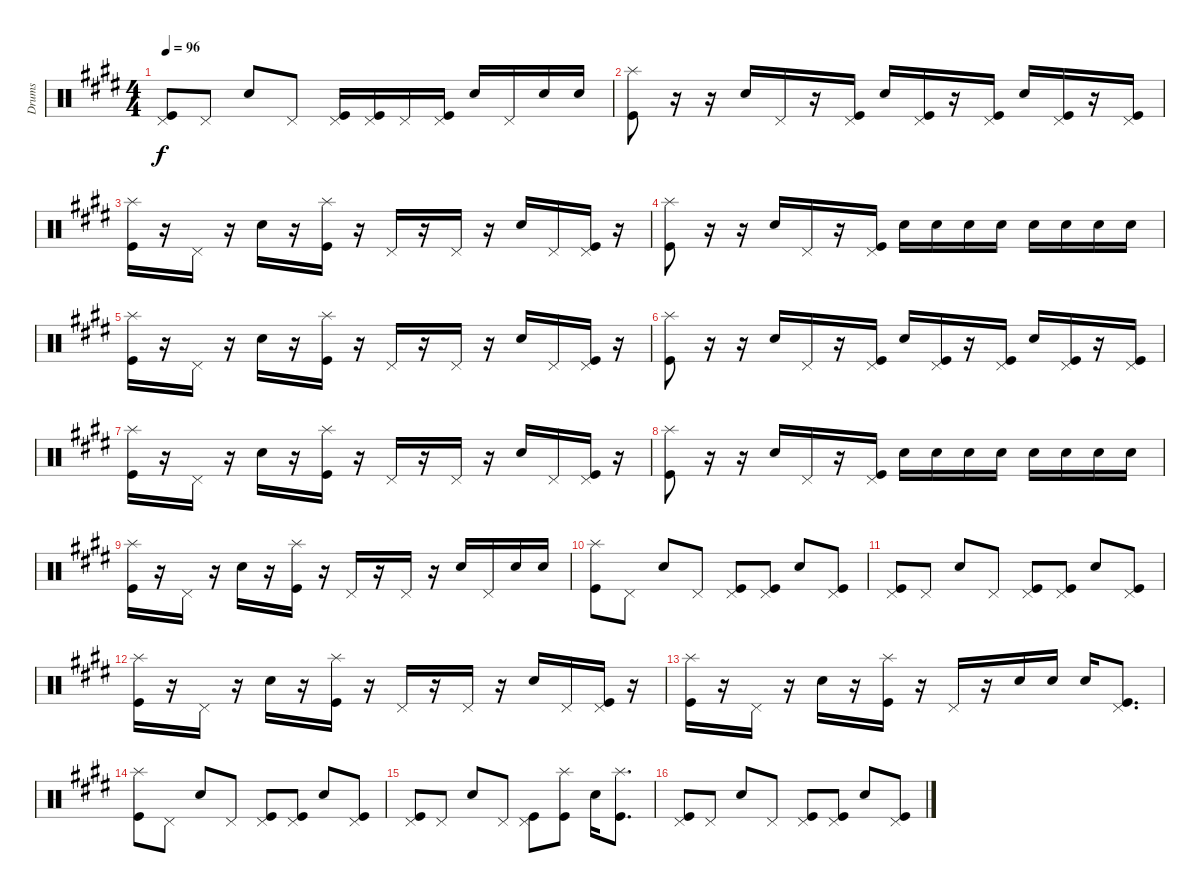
\track ("Drums" "Drums") {instrument percussion}
\staff {score}
\articulation defaults
\ts (4 4)
\tempo 96
\clef neutral
\ks e
("Kick (hit)" "Pedal Hi-Hat (hit)").8{dy f} "Pedal Hi-Hat (hit)".8 "Electric Snare (hit)".8 "Pedal Hi-Hat (hit)".8 ("Kick (hit)" "Pedal Hi-Hat (hit)").16 ("Kick (hit)" "Pedal Hi-Hat (hit)").16 "Pedal Hi-Hat (hit)".16 ("Kick (hit)" "Pedal Hi-Hat (hit)").16 "Electric Snare (hit)".16 "Pedal Hi-Hat (hit)".16 "Electric Snare (hit)".16 "Electric Snare (hit)".16 |
("Kick (hit)" "Splash (hit)").8 r.16 r.16 "Electric Snare (hit)".16 "Pedal Hi-Hat (hit)".16 r.16 ("Kick (hit)" "Pedal Hi-Hat (hit)").16 "Electric Snare (hit)".16 ("Kick (hit)" "Pedal Hi-Hat (hit)").16 r.16 ("Kick (hit)" "Pedal Hi-Hat (hit)").16 "Electric Snare (hit)".16 ("Kick (hit)" "Pedal Hi-Hat (hit)").16 r.16 ("Kick (hit)" "Pedal Hi-Hat (hit)").16 |
("Kick (hit)" "Splash (hit)").16 r.16 "Pedal Hi-Hat (hit)".16 r.16 "Electric Snare (hit)".16 r.16 ("Kick (hit)" "Splash (hit)").16 r.16 "Pedal Hi-Hat (hit)".16 r.16 "Pedal Hi-Hat (hit)".16 r.16 "Electric Snare (hit)".16 "Pedal Hi-Hat (hit)".16 ("Kick (hit)" "Pedal Hi-Hat (hit)").16 r.16 |
("Kick (hit)" "Splash (hit)").8 r.16 r.16 "Electric Snare (hit)".16 "Pedal Hi-Hat (hit)".16 r.16 ("Kick (hit)" "Pedal Hi-Hat (hit)").16 "Electric Snare (hit)".16 "Electric Snare (hit)".16 "Electric Snare (hit)".16 "Electric Snare (hit)".16 "Electric Snare (hit)".16 "Electric Snare (hit)".16 "Electric Snare (hit)".16 "Electric Snare (hit)".16 |
("Kick (hit)" "Splash (hit)").16 r.16 "Pedal Hi-Hat (hit)".16 r.16 "Electric Snare (hit)".16 r.16 ("Kick (hit)" "Splash (hit)").16 r.16 "Pedal Hi-Hat (hit)".16 r.16 "Pedal Hi-Hat (hit)".16 r.16 "Electric Snare (hit)".16 "Pedal Hi-Hat (hit)".16 ("Kick (hit)" "Pedal Hi-Hat (hit)").16 r.16 |
("Kick (hit)" "Splash (hit)").8 r.16 r.16 "Electric Snare (hit)".16 "Pedal Hi-Hat (hit)".16 r.16 ("Kick (hit)" "Pedal Hi-Hat (hit)").16 "Electric Snare (hit)".16 ("Kick (hit)" "Pedal Hi-Hat (hit)").16 r.16 ("Kick (hit)" "Pedal Hi-Hat (hit)").16 "Electric Snare (hit)".16 ("Kick (hit)" "Pedal Hi-Hat (hit)").16 r.16 ("Kick (hit)" "Pedal Hi-Hat (hit)").16 |
("Kick (hit)" "Splash (hit)").16 r.16 "Pedal Hi-Hat (hit)".16 r.16 "Electric Snare (hit)".16 r.16 ("Kick (hit)" "Splash (hit)").16 r.16 "Pedal Hi-Hat (hit)".16 r.16 "Pedal Hi-Hat (hit)".16 r.16 "Electric Snare (hit)".16 "Pedal Hi-Hat (hit)".16 ("Kick (hit)" "Pedal Hi-Hat (hit)").16 r.16 |
("Kick (hit)" "Splash (hit)").8 r.16 r.16 "Electric Snare (hit)".16 "Pedal Hi-Hat (hit)".16 r.16 ("Kick (hit)" "Pedal Hi-Hat (hit)").16 "Electric Snare (hit)".16 "Electric Snare (hit)".16 "Electric Snare (hit)".16 "Electric Snare (hit)".16 "Electric Snare (hit)".16 "Electric Snare (hit)".16 "Electric Snare (hit)".16 "Electric Snare (hit)".16 |
("Kick (hit)" "Splash (hit)").16 r.16 "Pedal Hi-Hat (hit)".16 r.16 "Electric Snare (hit)".16 r.16 ("Kick (hit)" "Splash (hit)").16 r.16 "Pedal Hi-Hat (hit)".16 r.16 "Pedal Hi-Hat (hit)".16 r.16 "Electric Snare (hit)".16 "Pedal Hi-Hat (hit)".16 "Electric Snare (hit)".16 "Electric Snare (hit)".16 |
("Kick (hit)" "Splash (hit)").8 "Pedal Hi-Hat (hit)".8 "Electric Snare (hit)".8 "Pedal Hi-Hat (hit)".8 ("Kick (hit)" "Pedal Hi-Hat (hit)").8 ("Kick (hit)" "Pedal Hi-Hat (hit)").8 "Electric Snare (hit)".8 ("Kick (hit)" "Pedal Hi-Hat (hit)").8 |
("Kick (hit)" "Pedal Hi-Hat (hit)").8 "Pedal Hi-Hat (hit)".8 "Electric Snare (hit)".8 "Pedal Hi-Hat (hit)".8 ("Kick (hit)" "Pedal Hi-Hat (hit)").8 ("Kick (hit)" "Pedal Hi-Hat (hit)").8 "Electric Snare (hit)".8 ("Kick (hit)" "Pedal Hi-Hat (hit)").8 |
("Kick (hit)" "Splash (hit)").16 r.16 "Pedal Hi-Hat (hit)".16 r.16 "Electric Snare (hit)".16 r.16 ("Kick (hit)" "Splash (hit)").16 r.16 "Pedal Hi-Hat (hit)".16 r.16 "Pedal Hi-Hat (hit)".16 r.16 "Electric Snare (hit)".16 "Pedal Hi-Hat (hit)".16 ("Kick (hit)" "Pedal Hi-Hat (hit)").16 r.16 |
("Kick (hit)" "Splash (hit)").16 r.16 "Pedal Hi-Hat (hit)".16 r.16 "Electric Snare (hit)".16 r.16 ("Kick (hit)" "Splash (hit)").16 r.16 "Pedal Hi-Hat (hit)".16 r.16 "Electric Snare (hit)".16 "Electric Snare (hit)".16 "Electric Snare (hit)".16 ("Kick (hit)" "Pedal Hi-Hat (hit)").8{d} |
("Kick (hit)" "Splash (hit)").8 "Pedal Hi-Hat (hit)".8 "Electric Snare (hit)".8 "Pedal Hi-Hat (hit)".8 ("Kick (hit)" "Pedal Hi-Hat (hit)").8 ("Kick (hit)" "Pedal Hi-Hat (hit)").8 "Electric Snare (hit)".8 ("Kick (hit)" "Pedal Hi-Hat (hit)").8 |
("Kick (hit)" "Pedal Hi-Hat (hit)").8 "Pedal Hi-Hat (hit)".8 "Electric Snare (hit)".8 "Pedal Hi-Hat (hit)".8 ("Kick (hit)" "Pedal Hi-Hat (hit)").8 ("Kick (hit)" "Splash (hit)").8 "Electric Snare (hit)".16 ("Kick (hit)" "Splash (hit)").8{d} |
("Kick (hit)" "Pedal Hi-Hat (hit)").8 "Pedal Hi-Hat (hit)".8 "Electric Snare (hit)".8 "Pedal Hi-Hat (hit)".8 ("Kick (hit)" "Pedal Hi-Hat (hit)").8 ("Kick (hit)" "Pedal Hi-Hat (hit)").8 "Electric Snare (hit)".8 ("Kick (hit)" "Pedal Hi-Hat (hit)").8
